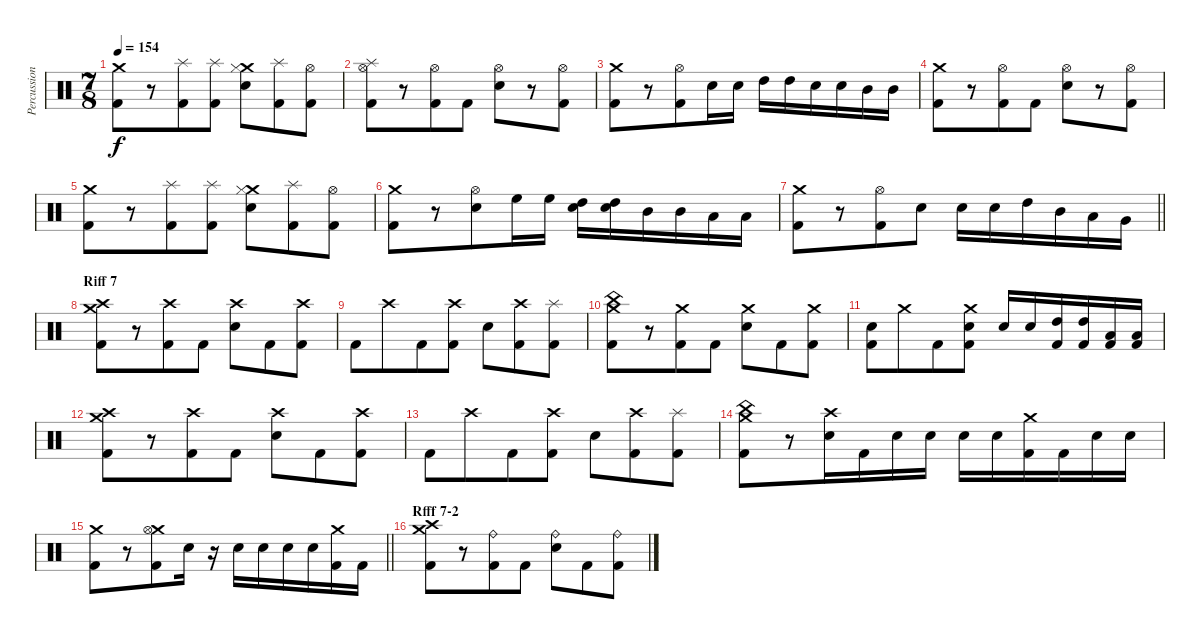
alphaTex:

\track ("Percussions" "Percussion") {instrument percussion}
\staff {score}
\articulation defaults
\ts (7 8)
\tempo 154
\clef neutral
\ks c
("Crash medium (hit)" "Kick (hit) 2").8{dy f} r.8 ("Splash (hit)" "Kick (hit) 2").8 ("Splash (hit)" "Kick (hit) 2").8 ("Crash medium (hit)" "Hi-Hat (closed)" "Electric Snare (hit)").8 ("Splash (hit)" "Kick (hit) 2").8 ("Hi-Hat (open)" "Kick (hit) 2").8 |
("Splash (hit)" "Hi-Hat (open)" "Kick (hit) 2").8 r.8 ("Hi-Hat (open)" "Kick (hit) 2").8 "Kick (hit) 2".8 ("Hi-Hat (open)" "Electric Snare (hit)").8 r.8 ("Hi-Hat (open)" "Kick (hit) 2").8 |
("Crash medium (hit)" "Kick (hit) 2").8 r.8 ("Hi-Hat (open)" "Kick (hit) 2").8 "Electric Snare (hit)".16 "Electric Snare (hit)".16 "High Tom (hit)".16 "High Tom (hit)".16 "Electric Snare (hit)".16 "Electric Snare (hit)".16 "Mid Tom (hit)".16 "Mid Tom (hit)".16 |
("Crash medium (hit)" "Kick (hit) 2").8 r.8 ("Hi-Hat (open)" "Kick (hit) 2").8 "Kick (hit) 2".8 ("Hi-Hat (open)" "Electric Snare (hit)").8 r.8 ("Hi-Hat (open)" "Kick (hit) 2").8 |
("Crash medium (hit)" "Kick (hit) 2").8 r.8 ("Splash (hit)" "Kick (hit) 2").8 ("Splash (hit)" "Kick (hit) 2").8 ("Crash medium (hit)" "Hi-Hat (closed)" "Electric Snare (hit)").8 ("Splash (hit)" "Kick (hit) 2").8 ("Hi-Hat (open)" "Kick (hit) 2").8 |
("Crash medium (hit)" "Kick (hit) 2").8 r.8 ("Hi-Hat (open)" "Electric Snare (hit)").8 "High Floor Tom (hit)".16 "High Floor Tom (hit)".16 ("Electric Snare (hit)" "High Tom (hit)").16 ("Electric Snare (hit)" "High Tom (hit)").16 "Mid Tom (hit)".16 "Mid Tom (hit)".16 "Low Tom (hit)".16 "Low Tom (hit)".16 |
\barLineRight lightlight
("Crash medium (hit)" "Kick (hit) 2").8 r.8 ("Hi-Hat (open)" "Kick (hit) 2").8 "Electric Snare (hit)".8 "Electric Snare (hit)".16 "Electric Snare (hit)".16 "High Tom (hit)".16 "Mid Tom (hit)".16 "Low Tom (hit)".16 "Very Low Tom (hit)".16 |
\section ("" "Riff 7")
("Crash high (hit)" "Crash medium (hit)" "Kick (hit) 2").8 r.8 ("Crash high (hit)" "Kick (hit) 2").8 "Kick (hit) 2".8 ("Crash high (hit)" "Electric Snare (hit)").8 "Kick (hit) 2".8 ("Crash high (hit)" "Kick (hit) 2").8 |
"Kick (hit) 2".8 "Crash high (hit)".8 "Kick (hit) 2".8 ("Crash high (hit)" "Kick (hit) 2").8 "Electric Snare (hit)".8 ("Crash high (hit)" "Kick (hit) 2").8 ("Splash (hit)" "Kick (hit) 2").8 |
("China (hit)" "Crash medium (hit)" "Kick (hit) 2").8 r.8 ("Crash medium (hit)" "Kick (hit) 2").8 "Kick (hit) 2".8 ("Crash medium (hit)" "Electric Snare (hit)").8 "Kick (hit) 2".8 ("Crash medium (hit)" "Kick (hit) 2").8 |
("Electric Snare (hit)" "Kick (hit) 2").8 "Crash medium (hit)".8 "Kick (hit) 2".8 ("Crash medium (hit)" "Electric Snare (hit)" "Kick (hit) 2").8 "Electric Snare (hit)".16 "Electric Snare (hit)".16 ("High Tom (hit)" "Kick (hit) 2").16 ("High Tom (hit)" "Kick (hit) 2").16 ("Low Floor Tom (hit)" "Kick (hit) 2").16 ("Low Floor Tom (hit)" "Kick (hit) 2").16 |
("Crash high (hit)" "Crash medium (hit)" "Kick (hit) 2").8 r.8 ("Crash high (hit)" "Kick (hit) 2").8 "Kick (hit) 2".8 ("Crash high (hit)" "Electric Snare (hit)").8 "Kick (hit) 2".8 ("Crash high (hit)" "Kick (hit) 2").8 |
"Kick (hit) 2".8 "Crash high (hit)".8 "Kick (hit) 2".8 ("Crash high (hit)" "Kick (hit) 2").8 "Electric Snare (hit)".8 ("Crash high (hit)" "Kick (hit) 2").8 ("Splash (hit)" "Kick (hit) 2").8 |
("China (hit)" "Crash medium (hit)" "Kick (hit) 2").8 r.8 ("Crash high (hit)" "Electric Snare (hit)").16 "Kick (hit) 2".16 "Electric Snare (hit)".16 "Electric Snare (hit)".16 "Electric Snare (hit)".16 "Electric Snare (hit)".16 ("Crash medium (hit)" "Kick (hit) 2").16 "Kick (hit) 2".16 "Electric Snare (hit)".16 "Electric Snare (hit)".16 |
\barLineRight lightlight
("Crash medium (hit)" "Kick (hit) 2").8 r.8 ("Crash medium (hit)" "Hi-Hat (open)" "Kick (hit) 2").8 "Electric Snare (hit)".16 r.16 "Electric Snare (hit)".16 "Electric Snare (hit)".16 "Electric Snare (hit)".16 "Electric Snare (hit)".16 ("Crash medium (hit)" "Kick (hit) 2").16 "Kick (hit) 2".16 |
\section ("" "Rfff 7-2")
("Crash high (hit)" "Crash medium (hit)" "Kick (hit) 2").8 r.8 ("Ride (bell)" "Kick (hit) 2").8 "Kick (hit) 2".8 ("Ride (bell)" "Electric Snare (hit)").8 "Kick (hit) 2".8 ("Ride (bell)" "Kick (hit) 2").8
